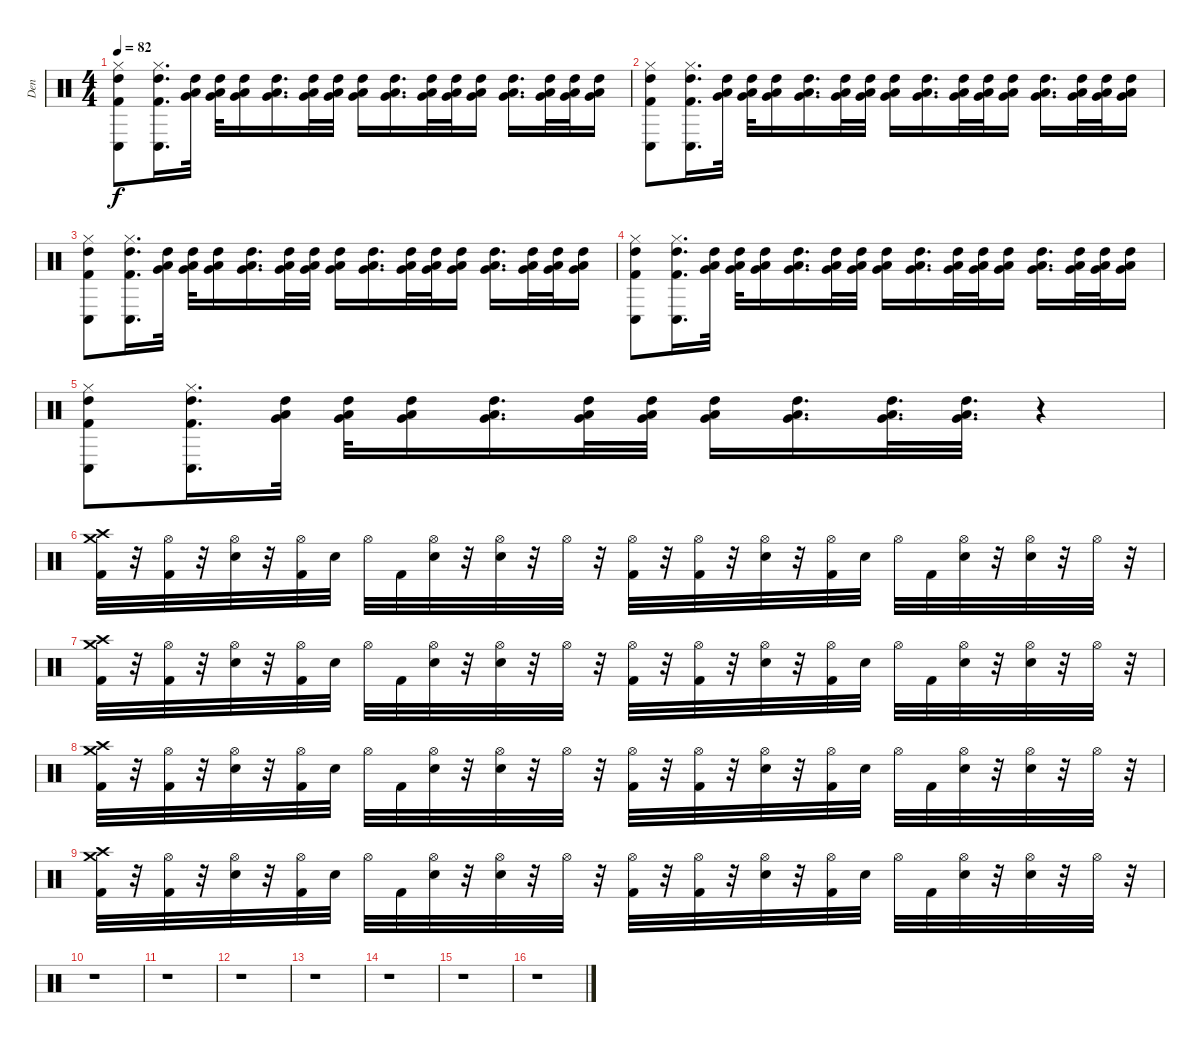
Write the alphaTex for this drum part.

\track ("Den" "Den") {instrument percussion}
\staff {score}
\articulation defaults
\ts (4 4)
\tempo 82
\clef neutral
\ks c
("Hi-Hat (closed)" "High Tom (hit)" "Conga low (hit)" "Kick (hit) 2").8{dy f} ("Hi-Hat (closed)" "High Tom (hit)" "Conga low (hit)" "Kick (hit) 2").16{d} ("Low Tom (hit)" "High Tom (hit)" "Very Low Tom (hit)").32 ("Low Tom (hit)" "High Tom (hit)" "Very Low Tom (hit)").32 ("Low Tom (hit)" "High Tom (hit)" "Very Low Tom (hit)").16 ("Low Tom (hit)" "High Tom (hit)" "Very Low Tom (hit)").16{d} ("Low Tom (hit)" "High Tom (hit)" "Very Low Tom (hit)").32 ("Low Tom (hit)" "High Tom (hit)" "Very Low Tom (hit)").32 ("Low Tom (hit)" "High Tom (hit)" "Very Low Tom (hit)").16 ("Low Tom (hit)" "High Tom (hit)" "Very Low Tom (hit)").16{d} ("Low Tom (hit)" "High Tom (hit)" "Very Low Tom (hit)").32 ("Low Tom (hit)" "High Tom (hit)" "Very Low Tom (hit)").32 ("Low Tom (hit)" "High Tom (hit)" "Very Low Tom (hit)").16 ("Low Tom (hit)" "High Tom (hit)" "Very Low Tom (hit)").16{d} ("Low Tom (hit)" "High Tom (hit)" "Very Low Tom (hit)").32 ("Low Tom (hit)" "High Tom (hit)" "Very Low Tom (hit)").32 ("Low Tom (hit)" "High Tom (hit)" "Very Low Tom (hit)").16 |
("Hi-Hat (closed)" "High Tom (hit)" "Conga low (hit)" "Kick (hit) 2").8 ("Hi-Hat (closed)" "High Tom (hit)" "Conga low (hit)" "Kick (hit) 2").16{d} ("Low Tom (hit)" "High Tom (hit)" "Very Low Tom (hit)").32 ("Low Tom (hit)" "High Tom (hit)" "Very Low Tom (hit)").32 ("Low Tom (hit)" "High Tom (hit)" "Very Low Tom (hit)").16 ("Low Tom (hit)" "High Tom (hit)" "Very Low Tom (hit)").16{d} ("Low Tom (hit)" "High Tom (hit)" "Very Low Tom (hit)").32 ("Low Tom (hit)" "High Tom (hit)" "Very Low Tom (hit)").32 ("Low Tom (hit)" "High Tom (hit)" "Very Low Tom (hit)").16 ("Low Tom (hit)" "High Tom (hit)" "Very Low Tom (hit)").16{d} ("Low Tom (hit)" "High Tom (hit)" "Very Low Tom (hit)").32 ("Low Tom (hit)" "High Tom (hit)" "Very Low Tom (hit)").32 ("Low Tom (hit)" "High Tom (hit)" "Very Low Tom (hit)").16 ("Low Tom (hit)" "High Tom (hit)" "Very Low Tom (hit)").16{d} ("Low Tom (hit)" "High Tom (hit)" "Very Low Tom (hit)").32 ("Low Tom (hit)" "High Tom (hit)" "Very Low Tom (hit)").32 ("Low Tom (hit)" "High Tom (hit)" "Very Low Tom (hit)").16 |
("Hi-Hat (closed)" "High Tom (hit)" "Conga low (hit)" "Kick (hit) 2").8 ("Hi-Hat (closed)" "High Tom (hit)" "Conga low (hit)" "Kick (hit) 2").16{d} ("Low Tom (hit)" "High Tom (hit)" "Very Low Tom (hit)").32 ("Low Tom (hit)" "High Tom (hit)" "Very Low Tom (hit)").32 ("Low Tom (hit)" "High Tom (hit)" "Very Low Tom (hit)").16 ("Low Tom (hit)" "High Tom (hit)" "Very Low Tom (hit)").16{d} ("Low Tom (hit)" "High Tom (hit)" "Very Low Tom (hit)").32 ("Low Tom (hit)" "High Tom (hit)" "Very Low Tom (hit)").32 ("Low Tom (hit)" "High Tom (hit)" "Very Low Tom (hit)").16 ("Low Tom (hit)" "High Tom (hit)" "Very Low Tom (hit)").16{d} ("Low Tom (hit)" "High Tom (hit)" "Very Low Tom (hit)").32 ("Low Tom (hit)" "High Tom (hit)" "Very Low Tom (hit)").32 ("Low Tom (hit)" "High Tom (hit)" "Very Low Tom (hit)").16 ("Low Tom (hit)" "High Tom (hit)" "Very Low Tom (hit)").16{d} ("Low Tom (hit)" "High Tom (hit)" "Very Low Tom (hit)").32 ("Low Tom (hit)" "High Tom (hit)" "Very Low Tom (hit)").32 ("Low Tom (hit)" "High Tom (hit)" "Very Low Tom (hit)").16 |
("Hi-Hat (closed)" "High Tom (hit)" "Conga low (hit)" "Kick (hit) 2").8 ("Hi-Hat (closed)" "High Tom (hit)" "Conga low (hit)" "Kick (hit) 2").16{d} ("Low Tom (hit)" "High Tom (hit)" "Very Low Tom (hit)").32 ("Low Tom (hit)" "High Tom (hit)" "Very Low Tom (hit)").32 ("Low Tom (hit)" "High Tom (hit)" "Very Low Tom (hit)").16 ("Low Tom (hit)" "High Tom (hit)" "Very Low Tom (hit)").16{d} ("Low Tom (hit)" "High Tom (hit)" "Very Low Tom (hit)").32 ("Low Tom (hit)" "High Tom (hit)" "Very Low Tom (hit)").32 ("Low Tom (hit)" "High Tom (hit)" "Very Low Tom (hit)").16 ("Low Tom (hit)" "High Tom (hit)" "Very Low Tom (hit)").16{d} ("Low Tom (hit)" "High Tom (hit)" "Very Low Tom (hit)").32 ("Low Tom (hit)" "High Tom (hit)" "Very Low Tom (hit)").32 ("Low Tom (hit)" "High Tom (hit)" "Very Low Tom (hit)").16 ("Low Tom (hit)" "High Tom (hit)" "Very Low Tom (hit)").16{d} ("Low Tom (hit)" "High Tom (hit)" "Very Low Tom (hit)").32 ("Low Tom (hit)" "High Tom (hit)" "Very Low Tom (hit)").32 ("Low Tom (hit)" "High Tom (hit)" "Very Low Tom (hit)").16 |
("Hi-Hat (closed)" "High Tom (hit)" "Conga low (hit)" "Kick (hit) 2").8 ("Hi-Hat (closed)" "High Tom (hit)" "Conga low (hit)" "Kick (hit) 2").16{d} ("Low Tom (hit)" "High Tom (hit)" "Very Low Tom (hit)").32 ("Low Tom (hit)" "High Tom (hit)" "Very Low Tom (hit)").32 ("Low Tom (hit)" "High Tom (hit)" "Very Low Tom (hit)").16 ("Low Tom (hit)" "High Tom (hit)" "Very Low Tom (hit)").16{d} ("Low Tom (hit)" "High Tom (hit)" "Very Low Tom (hit)").32 ("Low Tom (hit)" "High Tom (hit)" "Very Low Tom (hit)").32 ("Low Tom (hit)" "High Tom (hit)" "Very Low Tom (hit)").16 ("Low Tom (hit)" "High Tom (hit)" "Very Low Tom (hit)").16{d} ("Low Tom (hit)" "High Tom (hit)" "Very Low Tom (hit)").32{d} ("Low Tom (hit)" "High Tom (hit)" "Very Low Tom (hit)").32{d} r.4 |
("Crash high (hit)" "Crash medium (hit)" "Kick (hit) 2").32 r.32 ("Hi-Hat (open)" "Kick (hit) 2").32 r.32 ("Hi-Hat (open)" "Electric Snare (hit)").32 r.32 ("Hi-Hat (open)" "Kick (hit) 2").32 "Electric Snare (hit)".32 "Hi-Hat (open)".32 "Kick (hit) 2".32 ("Hi-Hat (open)" "Electric Snare (hit)").32 r.32 ("Hi-Hat (open)" "Electric Snare (hit)").32 r.32 "Hi-Hat (open)".32 r.32 ("Hi-Hat (open)" "Kick (hit) 2").32 r.32 ("Hi-Hat (open)" "Kick (hit) 2").32 r.32 ("Hi-Hat (open)" "Electric Snare (hit)").32 r.32 ("Hi-Hat (open)" "Kick (hit) 2").32 "Electric Snare (hit)".32 "Hi-Hat (open)".32 "Kick (hit) 2".32 ("Hi-Hat (open)" "Electric Snare (hit)").32 r.32 ("Hi-Hat (open)" "Electric Snare (hit)").32 r.32 "Hi-Hat (open)".32 r.32 |
("Crash high (hit)" "Crash medium (hit)" "Kick (hit) 2").32 r.32 ("Hi-Hat (open)" "Kick (hit) 2").32 r.32 ("Hi-Hat (open)" "Electric Snare (hit)").32 r.32 ("Hi-Hat (open)" "Kick (hit) 2").32 "Electric Snare (hit)".32 "Hi-Hat (open)".32 "Kick (hit) 2".32 ("Hi-Hat (open)" "Electric Snare (hit)").32 r.32 ("Hi-Hat (open)" "Electric Snare (hit)").32 r.32 "Hi-Hat (open)".32 r.32 ("Hi-Hat (open)" "Kick (hit) 2").32 r.32 ("Hi-Hat (open)" "Kick (hit) 2").32 r.32 ("Hi-Hat (open)" "Electric Snare (hit)").32 r.32 ("Hi-Hat (open)" "Kick (hit) 2").32 "Electric Snare (hit)".32 "Hi-Hat (open)".32 "Kick (hit) 2".32 ("Hi-Hat (open)" "Electric Snare (hit)").32 r.32 ("Hi-Hat (open)" "Electric Snare (hit)").32 r.32 "Hi-Hat (open)".32 r.32 |
("Crash high (hit)" "Crash medium (hit)" "Kick (hit) 2").32 r.32 ("Hi-Hat (open)" "Kick (hit) 2").32 r.32 ("Hi-Hat (open)" "Electric Snare (hit)").32 r.32 ("Hi-Hat (open)" "Kick (hit) 2").32 "Electric Snare (hit)".32 "Hi-Hat (open)".32 "Kick (hit) 2".32 ("Hi-Hat (open)" "Electric Snare (hit)").32 r.32 ("Hi-Hat (open)" "Electric Snare (hit)").32 r.32 "Hi-Hat (open)".32 r.32 ("Hi-Hat (open)" "Kick (hit) 2").32 r.32 ("Hi-Hat (open)" "Kick (hit) 2").32 r.32 ("Hi-Hat (open)" "Electric Snare (hit)").32 r.32 ("Hi-Hat (open)" "Kick (hit) 2").32 "Electric Snare (hit)".32 "Hi-Hat (open)".32 "Kick (hit) 2".32 ("Hi-Hat (open)" "Electric Snare (hit)").32 r.32 ("Hi-Hat (open)" "Electric Snare (hit)").32 r.32 "Hi-Hat (open)".32 r.32 |
("Crash high (hit)" "Crash medium (hit)" "Kick (hit) 2").32 r.32 ("Hi-Hat (open)" "Kick (hit) 2").32 r.32 ("Hi-Hat (open)" "Electric Snare (hit)").32 r.32 ("Hi-Hat (open)" "Kick (hit) 2").32 "Electric Snare (hit)".32 "Hi-Hat (open)".32 "Kick (hit) 2".32 ("Hi-Hat (open)" "Electric Snare (hit)").32 r.32 ("Hi-Hat (open)" "Electric Snare (hit)").32 r.32 "Hi-Hat (open)".32 r.32 ("Hi-Hat (open)" "Kick (hit) 2").32 r.32 ("Hi-Hat (open)" "Kick (hit) 2").32 r.32 ("Hi-Hat (open)" "Electric Snare (hit)").32 r.32 ("Hi-Hat (open)" "Kick (hit) 2").32 "Electric Snare (hit)".32 "Hi-Hat (open)".32 "Kick (hit) 2".32 ("Hi-Hat (open)" "Electric Snare (hit)").32 r.32 ("Hi-Hat (open)" "Electric Snare (hit)").32 r.32 "Hi-Hat (open)".32 r.32 |
r.1 |
r.1 |
r.1 |
r.1 |
r.1 |
r.1 |
r.1
